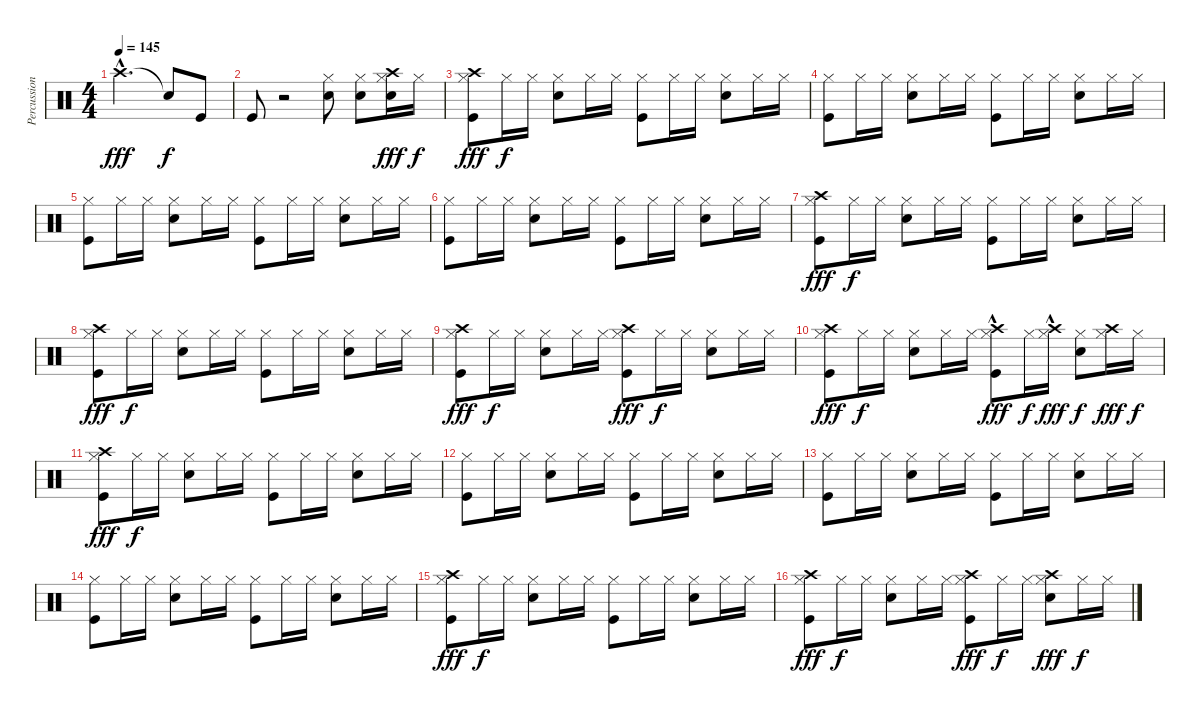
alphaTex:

\track ("Percussion" "Percussion") {instrument percussion}
\staff {score}
\articulation defaults
\ts (4 4)
\tempo 145
\clef neutral
\ks c "Crash high (hit)"{hac}.2{d dy fff} "Snare (hit)"{t}.8{dy f} "Kick (hit)".8
|
"Kick (hit)".8 r.2 ("Snare (hit) 2" "Hi-Hat (closed)").8 ("Snare (hit) 2" "Hi-Hat (closed)").8 ("Crash high (hit)" "Snare (hit) 2" "Hi-Hat (closed)").16{dy fff} "Hi-Hat (closed)".16{dy f} |
("Crash high (hit)" "Hi-Hat (closed)" "Kick (hit)").8{dy fff} "Hi-Hat (closed)".16{dy f} "Hi-Hat (closed)".16 ("Hi-Hat (closed)" "Snare (hit) 2").8 "Hi-Hat (closed)".16 "Hi-Hat (closed)".16 ("Hi-Hat (closed)" "Kick (hit)").8 "Hi-Hat (closed)".16 "Hi-Hat (closed)".16 ("Hi-Hat (closed)" "Snare (hit) 2").8 "Hi-Hat (closed)".16 "Hi-Hat (closed)".16 |
("Kick (hit)" "Hi-Hat (closed)").8 "Hi-Hat (closed)".16 "Hi-Hat (closed)".16 ("Snare (hit) 2" "Hi-Hat (closed)").8 "Hi-Hat (closed)".16 "Hi-Hat (closed)".16 ("Kick (hit)" "Hi-Hat (closed)").8 "Hi-Hat (closed)".16 "Hi-Hat (closed)".16 ("Snare (hit) 2" "Hi-Hat (closed)").8 "Hi-Hat (closed)".16 "Hi-Hat (closed)".16 |
("Kick (hit)" "Hi-Hat (closed)").8 "Hi-Hat (closed)".16 "Hi-Hat (closed)".16 ("Snare (hit) 2" "Hi-Hat (closed)").8 "Hi-Hat (closed)".16 "Hi-Hat (closed)".16 ("Kick (hit)" "Hi-Hat (closed)").8 "Hi-Hat (closed)".16 "Hi-Hat (closed)".16 ("Snare (hit) 2" "Hi-Hat (closed)").8 "Hi-Hat (closed)".16 "Hi-Hat (closed)".16 |
("Kick (hit)" "Hi-Hat (closed)").8 "Hi-Hat (closed)".16 "Hi-Hat (closed)".16 ("Snare (hit) 2" "Hi-Hat (closed)").8 "Hi-Hat (closed)".16 "Hi-Hat (closed)".16 ("Kick (hit)" "Hi-Hat (closed)").8 "Hi-Hat (closed)".16 "Hi-Hat (closed)".16 ("Snare (hit) 2" "Hi-Hat (closed)").8 "Hi-Hat (closed)".16 "Hi-Hat (closed)".16 |
("Crash high (hit)" "Kick (hit)" "Hi-Hat (closed)").8{dy fff} "Hi-Hat (closed)".16{dy f} "Hi-Hat (closed)".16 ("Snare (hit) 2" "Hi-Hat (closed)").8 "Hi-Hat (closed)".16 "Hi-Hat (closed)".16 ("Kick (hit)" "Hi-Hat (closed)").8 "Hi-Hat (closed)".16 "Hi-Hat (closed)".16 ("Snare (hit) 2" "Hi-Hat (closed)").8 "Hi-Hat (closed)".16 "Hi-Hat (closed)".16 |
("Crash high (hit)" "Kick (hit)" "Hi-Hat (closed)").8{dy fff} "Hi-Hat (closed)".16{dy f} "Hi-Hat (closed)".16 ("Snare (hit) 2" "Hi-Hat (closed)").8 "Hi-Hat (closed)".16 "Hi-Hat (closed)".16 ("Kick (hit)" "Hi-Hat (closed)").8 "Hi-Hat (closed)".16 "Hi-Hat (closed)".16 ("Snare (hit) 2" "Hi-Hat (closed)").8 "Hi-Hat (closed)".16 "Hi-Hat (closed)".16 |
("Crash high (hit)" "Kick (hit)" "Hi-Hat (closed)").8{dy fff} "Hi-Hat (closed)".16{dy f} "Hi-Hat (closed)".16 ("Snare (hit) 2" "Hi-Hat (closed)").8 "Hi-Hat (closed)".16 "Hi-Hat (closed)".16 ("Crash high (hit)" "Kick (hit)" "Hi-Hat (closed)").8{dy fff} "Hi-Hat (closed)".16{dy f} "Hi-Hat (closed)".16 ("Snare (hit) 2" "Hi-Hat (closed)").8 "Hi-Hat (closed)".16 "Hi-Hat (closed)".16 |
("Crash high (hit)" "Kick (hit)" "Hi-Hat (closed)").8{dy fff} "Hi-Hat (closed)".16{dy f} "Hi-Hat (closed)".16 ("Snare (hit) 2" "Hi-Hat (closed)").8 "Hi-Hat (closed)".16 "Hi-Hat (closed)".16 ("Crash high (hit)"{hac} "Kick (hit)" "Hi-Hat (closed)").8{dy fff} "Hi-Hat (closed)".16{dy f} ("Crash high (hit)"{hac} "Hi-Hat (closed)").16{dy fff} ("Snare (hit) 2" "Hi-Hat (closed)").8{dy f} ("Crash high (hit)" "Hi-Hat (closed)").16{dy fff} "Hi-Hat (closed)".16{dy f} |
("Crash high (hit)" "Hi-Hat (closed)" "Kick (hit)").8{dy fff} "Hi-Hat (closed)".16{dy f} "Hi-Hat (closed)".16 ("Hi-Hat (closed)" "Snare (hit) 2").8 "Hi-Hat (closed)".16 "Hi-Hat (closed)".16 ("Hi-Hat (closed)" "Kick (hit)").8 "Hi-Hat (closed)".16 "Hi-Hat (closed)".16 ("Hi-Hat (closed)" "Snare (hit) 2").8 "Hi-Hat (closed)".16 "Hi-Hat (closed)".16 |
("Kick (hit)" "Hi-Hat (closed)").8 "Hi-Hat (closed)".16 "Hi-Hat (closed)".16 ("Snare (hit) 2" "Hi-Hat (closed)").8 "Hi-Hat (closed)".16 "Hi-Hat (closed)".16 ("Kick (hit)" "Hi-Hat (closed)").8 "Hi-Hat (closed)".16 "Hi-Hat (closed)".16 ("Snare (hit) 2" "Hi-Hat (closed)").8 "Hi-Hat (closed)".16 "Hi-Hat (closed)".16 |
("Kick (hit)" "Hi-Hat (closed)").8 "Hi-Hat (closed)".16 "Hi-Hat (closed)".16 ("Snare (hit) 2" "Hi-Hat (closed)").8 "Hi-Hat (closed)".16 "Hi-Hat (closed)".16 ("Kick (hit)" "Hi-Hat (closed)").8 "Hi-Hat (closed)".16 "Hi-Hat (closed)".16 ("Snare (hit) 2" "Hi-Hat (closed)").8 "Hi-Hat (closed)".16 "Hi-Hat (closed)".16 |
("Kick (hit)" "Hi-Hat (closed)").8 "Hi-Hat (closed)".16 "Hi-Hat (closed)".16 ("Snare (hit) 2" "Hi-Hat (closed)").8 "Hi-Hat (closed)".16 "Hi-Hat (closed)".16 ("Kick (hit)" "Hi-Hat (closed)").8 "Hi-Hat (closed)".16 "Hi-Hat (closed)".16 ("Snare (hit) 2" "Hi-Hat (closed)").8 "Hi-Hat (closed)".16 "Hi-Hat (closed)".16 |
("Crash high (hit)" "Hi-Hat (closed)" "Kick (hit)").8{dy fff} "Hi-Hat (closed)".16{dy f} "Hi-Hat (closed)".16 ("Hi-Hat (closed)" "Snare (hit) 2").8 "Hi-Hat (closed)".16 "Hi-Hat (closed)".16 ("Hi-Hat (closed)" "Kick (hit)").8 "Hi-Hat (closed)".16 "Hi-Hat (closed)".16 ("Hi-Hat (closed)" "Snare (hit) 2").8 "Hi-Hat (closed)".16 "Hi-Hat (closed)".16 |
("Crash high (hit)" "Kick (hit)" "Hi-Hat (closed)").8{dy fff} "Hi-Hat (closed)".16{dy f} "Hi-Hat (closed)".16 ("Snare (hit) 2" "Hi-Hat (closed)").8 "Hi-Hat (closed)".16 "Hi-Hat (closed)".16 ("Crash high (hit)" "Kick (hit)" "Hi-Hat (closed)").8{dy fff} "Hi-Hat (closed)".16{dy f} "Hi-Hat (closed)".16 ("Crash high (hit)" "Snare (hit) 2" "Hi-Hat (closed)").8{dy fff} "Hi-Hat (closed)".16{dy f} "Hi-Hat (closed)".16
